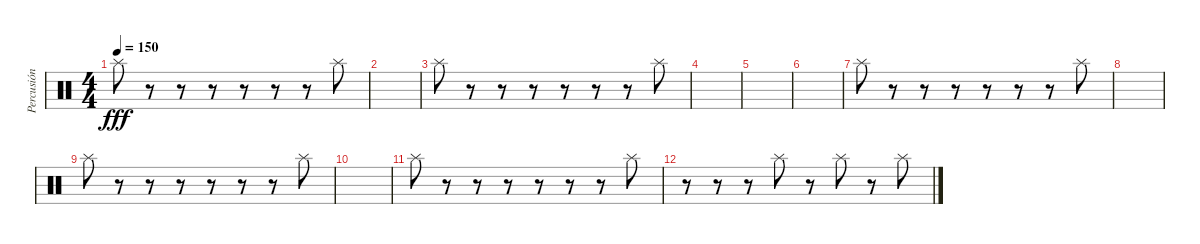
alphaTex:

\track ("Percusión" "Percusión") {instrument percussion}
\staff {score}
\articulation defaults
\ts (4 4)
\tempo 150
\clef neutral
\ks c "Splash (hit)".8{dy fff}
r.8 r.8 r.8 r.8 r.8 r.8 "Splash (hit)".8 |
|
"Splash (hit)".8 r.8 r.8 r.8 r.8 r.8 r.8 "Splash (hit)".8 |
|
|
|
"Splash (hit)".8 r.8 r.8 r.8 r.8 r.8 r.8 "Splash (hit)".8 |
|
"Splash (hit)".8 r.8 r.8 r.8 r.8 r.8 r.8 "Splash (hit)".8 |
|
"Splash (hit)".8 r.8 r.8 r.8 r.8 r.8 r.8 "Splash (hit)".8 |
r.8 r.8 r.8 "Splash (hit)".8 r.8 "Splash (hit)".8 r.8 "Splash (hit)".8
